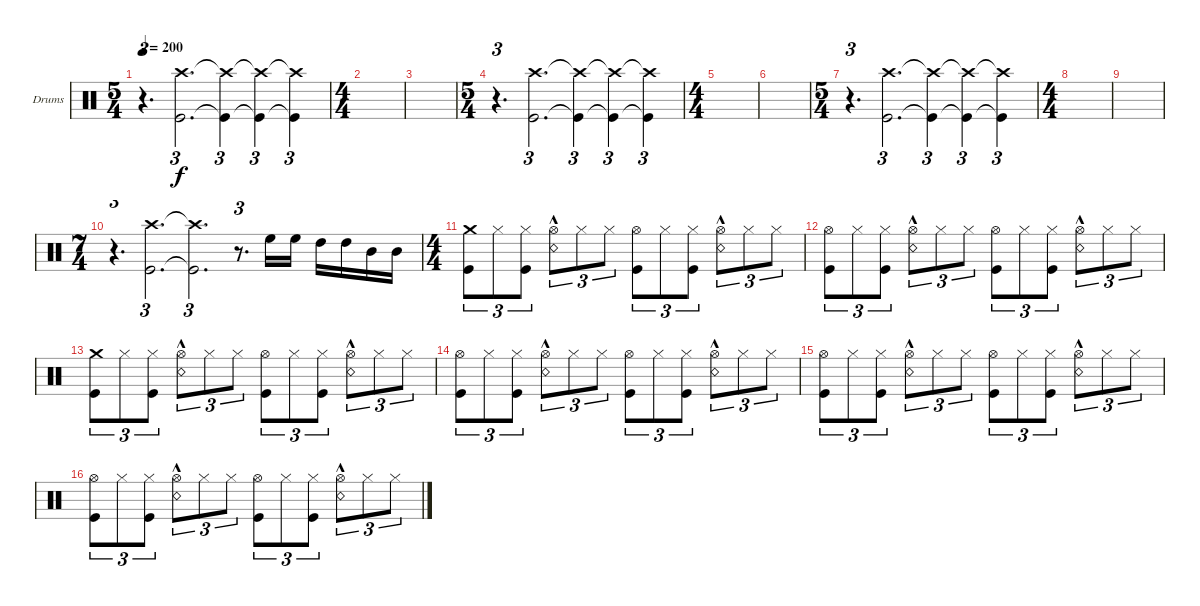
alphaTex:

\bracketExtendMode groupsimilarinstruments
\firstSystemTrackNameOrientation horizontal
\otherSystemsTrackNameOrientation horizontal
\track ("Drumkit" "Drums") {instrument percussion}
\staff {score}
\articulation defaults
\ts (5 4)
\tempo 200
\clef neutral
\ks c
r.4{d tu (3 2) dy f} ("Crash high (hit)" "Kick (hit)").2{d tu (3 2)} ("Crash high (hit)"{t} "Kick (hit)"{t}).4{tu (3 2)} ("Crash high (hit)"{t} "Kick (hit)"{t}).4{tu (3 2)} ("Crash high (hit)"{t} "Kick (hit)"{t}).4{tu (3 2)} |
\ts (4 4)
|
|
\ts (5 4)
r.4{d tu (3 2)} ("Crash high (hit)" "Kick (hit)").2{d tu (3 2)} ("Crash high (hit)"{t} "Kick (hit)"{t}).4{tu (3 2)} ("Crash high (hit)"{t} "Kick (hit)"{t}).4{tu (3 2)} ("Crash high (hit)"{t} "Kick (hit)"{t}).4{tu (3 2)} |
\ts (4 4)
|
|
\ts (5 4)
r.4{d tu (3 2)} ("Crash high (hit)" "Kick (hit)").2{d tu (3 2)} ("Crash high (hit)"{t} "Kick (hit)"{t}).4{tu (3 2)} ("Crash high (hit)"{t} "Kick (hit)"{t}).4{tu (3 2)} ("Crash high (hit)"{t} "Kick (hit)"{t}).4{tu (3 2)} |
\ts (4 4)
|
|
\ts (7 4)
r.4{d tu (3 2)} ("Crash high (hit)" "Kick (hit)").2{d tu (3 2)} ("Crash high (hit)"{t} "Kick (hit)"{t}).2{d tu (3 2)} r.8{d tu (3 2)} "High Floor Tom (hit)".16 "High Floor Tom (hit)".16 "High Tom (hit)".16 "High Tom (hit)".16 "Mid Tom (hit)".16 "Mid Tom (hit)".16 |
\ts (4 4)
("Kick (hit)" "Crash medium (hit)").8{tu (3 2)} "Hi-Hat (closed)".8{tu (3 2)} ("Kick (hit)" "Hi-Hat (closed)").8{tu (3 2)} ("Snare (rim shot)"{hac} "Hi-Hat (open)").8{tu (3 2)} "Hi-Hat (closed)".8{tu (3 2)} "Hi-Hat (closed)".8{tu (3 2)} ("Kick (hit)" "Hi-Hat (open)").8{tu (3 2)} "Hi-Hat (closed)".8{tu (3 2)} ("Kick (hit)" "Hi-Hat (closed)").8{tu (3 2)} ("Snare (rim shot)"{hac} "Hi-Hat (open)").8{tu (3 2)} "Hi-Hat (closed)".8{tu (3 2)} "Hi-Hat (closed)".8{tu (3 2)} |
("Kick (hit)" "Hi-Hat (open)").8{tu (3 2)} "Hi-Hat (closed)".8{tu (3 2)} ("Kick (hit)" "Hi-Hat (closed)").8{tu (3 2)} ("Snare (rim shot)"{hac} "Hi-Hat (open)").8{tu (3 2)} "Hi-Hat (closed)".8{tu (3 2)} "Hi-Hat (closed)".8{tu (3 2)} ("Kick (hit)" "Hi-Hat (open)").8{tu (3 2)} "Hi-Hat (closed)".8{tu (3 2)} ("Kick (hit)" "Hi-Hat (closed)").8{tu (3 2)} ("Snare (rim shot)"{hac} "Hi-Hat (open)").8{tu (3 2)} "Hi-Hat (closed)".8{tu (3 2)} "Hi-Hat (closed)".8{tu (3 2)} |
("Kick (hit)" "Crash medium (hit)").8{tu (3 2)} "Hi-Hat (closed)".8{tu (3 2)} ("Kick (hit)" "Hi-Hat (closed)").8{tu (3 2)} ("Snare (rim shot)"{hac} "Hi-Hat (open)").8{tu (3 2)} "Hi-Hat (closed)".8{tu (3 2)} "Hi-Hat (closed)".8{tu (3 2)} ("Kick (hit)" "Hi-Hat (open)").8{tu (3 2)} "Hi-Hat (closed)".8{tu (3 2)} ("Kick (hit)" "Hi-Hat (closed)").8{tu (3 2)} ("Snare (rim shot)"{hac} "Hi-Hat (open)").8{tu (3 2)} "Hi-Hat (closed)".8{tu (3 2)} "Hi-Hat (closed)".8{tu (3 2)} |
("Kick (hit)" "Hi-Hat (open)").8{tu (3 2)} "Hi-Hat (closed)".8{tu (3 2)} ("Kick (hit)" "Hi-Hat (closed)").8{tu (3 2)} ("Snare (rim shot)"{hac} "Hi-Hat (open)").8{tu (3 2)} "Hi-Hat (closed)".8{tu (3 2)} "Hi-Hat (closed)".8{tu (3 2)} ("Kick (hit)" "Hi-Hat (open)").8{tu (3 2)} "Hi-Hat (closed)".8{tu (3 2)} ("Kick (hit)" "Hi-Hat (closed)").8{tu (3 2)} ("Snare (rim shot)"{hac} "Hi-Hat (open)").8{tu (3 2)} "Hi-Hat (closed)".8{tu (3 2)} "Hi-Hat (closed)".8{tu (3 2)} |
("Kick (hit)" "Hi-Hat (open)").8{tu (3 2)} "Hi-Hat (closed)".8{tu (3 2)} ("Kick (hit)" "Hi-Hat (closed)").8{tu (3 2)} ("Snare (rim shot)"{hac} "Hi-Hat (open)").8{tu (3 2)} "Hi-Hat (closed)".8{tu (3 2)} "Hi-Hat (closed)".8{tu (3 2)} ("Kick (hit)" "Hi-Hat (open)").8{tu (3 2)} "Hi-Hat (closed)".8{tu (3 2)} ("Kick (hit)" "Hi-Hat (closed)").8{tu (3 2)} ("Snare (rim shot)"{hac} "Hi-Hat (open)").8{tu (3 2)} "Hi-Hat (closed)".8{tu (3 2)} "Hi-Hat (closed)".8{tu (3 2)} |
("Kick (hit)" "Hi-Hat (open)").8{tu (3 2)} "Hi-Hat (closed)".8{tu (3 2)} ("Kick (hit)" "Hi-Hat (closed)").8{tu (3 2)} ("Snare (rim shot)"{hac} "Hi-Hat (open)").8{tu (3 2)} "Hi-Hat (closed)".8{tu (3 2)} "Hi-Hat (closed)".8{tu (3 2)} ("Kick (hit)" "Hi-Hat (open)").8{tu (3 2)} "Hi-Hat (closed)".8{tu (3 2)} ("Kick (hit)" "Hi-Hat (closed)").8{tu (3 2)} ("Snare (rim shot)"{hac} "Hi-Hat (open)").8{tu (3 2)} "Hi-Hat (closed)".8{tu (3 2)} "Hi-Hat (closed)".8{tu (3 2)}
